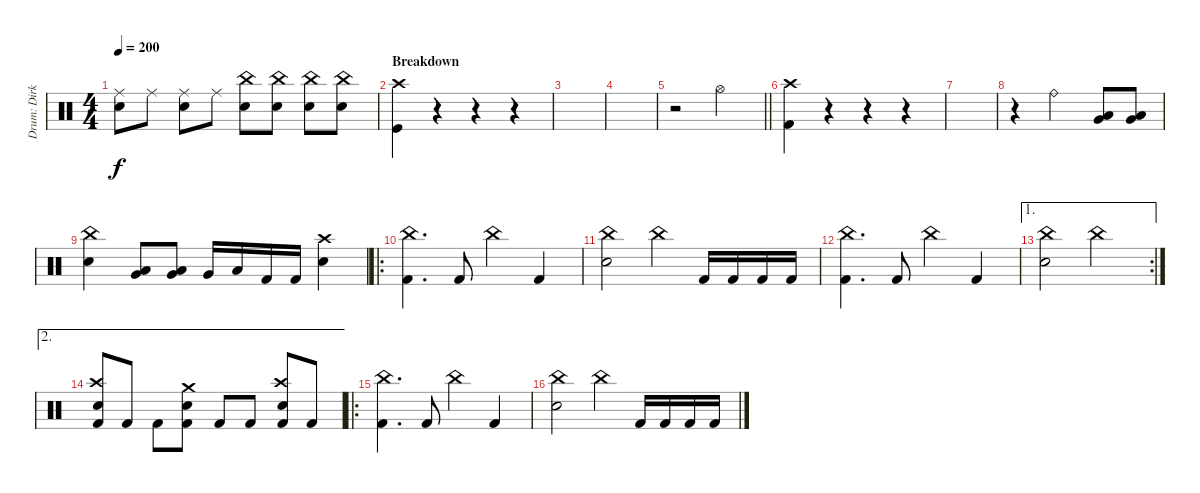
\track ("Drum: Dirk" "Drum: Dirk") {instrument percussion}
\staff {score}
\articulation defaults
\ts (4 4)
\tempo 200
\clef neutral
\ks c
("Ride (middle)" "Electric Snare (hit)").8{dy f} "Ride (middle)".8 ("Ride (middle)" "Electric Snare (hit)").8 "Ride (middle)".8 ("China (hit)" "Electric Snare (hit)").8 ("China (hit)" "Electric Snare (hit)").8 ("China (hit)" "Electric Snare (hit)").8 ("China (hit)" "Electric Snare (hit)").8 |
\section ("" "Breakdown")
("Crash high (hit)" "Kick (hit)").4 r.4 r.4 r.4 |
|
|
\barLineRight lightlight
r.2 "Hi-Hat (open)".2 |
\section ("" "")
("Crash high (hit)" "Kick (hit) 2").4 r.4 r.4 r.4 |
|
r.4 "Ride (bell)".2 ("Low Tom (hit)" "Very Low Tom (hit)").8 ("Low Tom (hit)" "Very Low Tom (hit)").8 |
("China (hit)" "Electric Snare (hit)").4 ("Low Tom (hit)" "Very Low Tom (hit)").8 ("Low Tom (hit)" "Very Low Tom (hit)").8 "Very Low Tom (hit)".16 "Low Tom (hit)".16 "Kick (hit) 2".16 "Kick (hit) 2".16 ("Crash high (hit)" "Electric Snare (hit)").4 |
\ro
("China (hit)" "Kick (hit) 2").4{d} "Kick (hit) 2".8 "China (hit)".4 "Kick (hit) 2".4 |
("China (hit)" "Electric Snare (hit)").2 "China (hit)".4 "Kick (hit) 2".16 "Kick (hit) 2".16 "Kick (hit) 2".16 "Kick (hit) 2".16 |
("China (hit)" "Kick (hit) 2").4{d} "Kick (hit) 2".8 "China (hit)".4 "Kick (hit) 2".4 |
\ae 1
\rc 2
("China (hit)" "Electric Snare (hit)").2 "China (hit)".2 |
\ae 2
("Crash high (hit)" "Electric Snare (hit)" "Kick (hit) 2").8 "Kick (hit) 2".8 "Kick (hit) 2".8 ("Crash medium (hit)" "Electric Snare (hit)" "Kick (hit) 2").8 "Kick (hit) 2".8 "Kick (hit) 2".8 ("Crash high (hit)" "Electric Snare (hit)" "Kick (hit) 2").8 "Kick (hit) 2".8 |
\ro
("China (hit)" "Kick (hit) 2").4{d} "Kick (hit) 2".8 "China (hit)".4 "Kick (hit) 2".4 |
("China (hit)" "Electric Snare (hit)").2 "China (hit)".4 "Kick (hit) 2".16 "Kick (hit) 2".16 "Kick (hit) 2".16 "Kick (hit) 2".16
